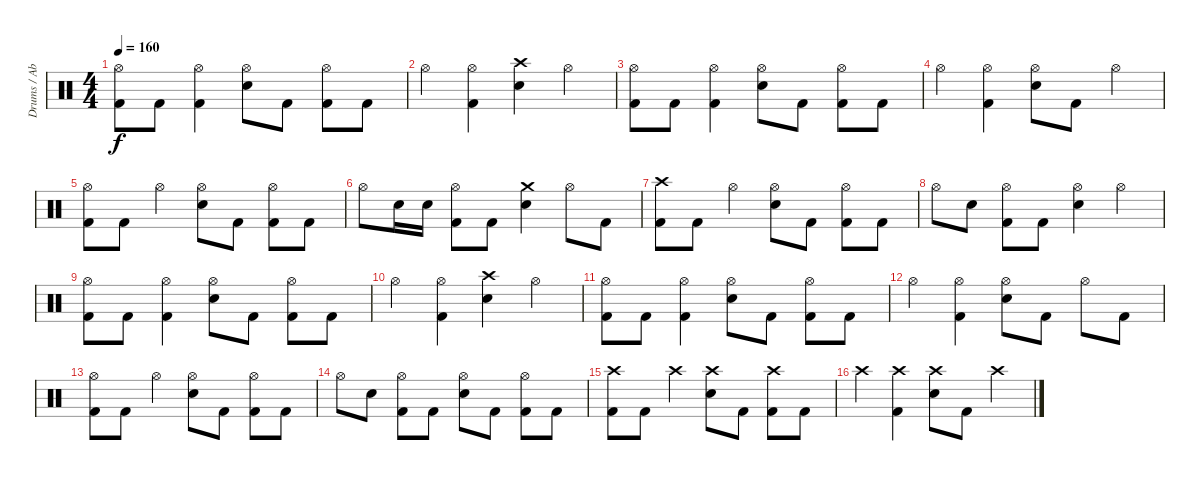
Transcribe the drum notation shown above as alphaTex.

\track ("Drums / Abe Cunningham" "Drums / Ab") {instrument percussion}
\staff {score}
\articulation defaults
\ts (4 4)
\tempo 160
\clef neutral
\ks c
("Hi-Hat (open)" "Kick (hit) 2").8{dy f} "Kick (hit) 2".8 ("Hi-Hat (open)" "Kick (hit) 2").4 ("Hi-Hat (open)" "Electric Snare (hit)").8 "Kick (hit) 2".8 ("Hi-Hat (open)" "Kick (hit) 2").8 "Kick (hit) 2".8 |
"Hi-Hat (open)".4 ("Hi-Hat (open)" "Kick (hit) 2").4 ("Crash high (hit)" "Electric Snare (hit)").4 "Hi-Hat (open)".4 |
("Hi-Hat (open)" "Kick (hit) 2").8 "Kick (hit) 2".8 ("Hi-Hat (open)" "Kick (hit) 2").4 ("Hi-Hat (open)" "Electric Snare (hit)").8 "Kick (hit) 2".8 ("Hi-Hat (open)" "Kick (hit) 2").8 "Kick (hit) 2".8 |
"Hi-Hat (open)".4 ("Hi-Hat (open)" "Kick (hit) 2").4 ("Hi-Hat (open)" "Electric Snare (hit)").8 "Kick (hit) 2".8 "Hi-Hat (open)".4 |
("Hi-Hat (open)" "Kick (hit) 2").8 "Kick (hit) 2".8 "Hi-Hat (open)".4 ("Hi-Hat (open)" "Electric Snare (hit)").8 "Kick (hit) 2".8 ("Hi-Hat (open)" "Kick (hit) 2").8 "Kick (hit) 2".8 |
"Hi-Hat (open)".8 "Electric Snare (hit)".16 "Electric Snare (hit)".16 ("Hi-Hat (open)" "Kick (hit) 2").8 "Kick (hit) 2".8 ("Crash medium (hit)" "Electric Snare (hit)").4 "Hi-Hat (open)".8 "Kick (hit) 2".8 |
("Crash high (hit)" "Kick (hit) 2").8 "Kick (hit) 2".8 "Hi-Hat (open)".4 ("Hi-Hat (open)" "Electric Snare (hit)").8 "Kick (hit) 2".8 ("Hi-Hat (open)" "Kick (hit) 2").8 "Kick (hit) 2".8 |
"Hi-Hat (open)".8 "Electric Snare (hit)".8 ("Hi-Hat (open)" "Kick (hit) 2").8 "Kick (hit) 2".8 ("Hi-Hat (open)" "Electric Snare (hit)").4 "Hi-Hat (open)".4 |
("Hi-Hat (open)" "Kick (hit) 2").8 "Kick (hit) 2".8 ("Hi-Hat (open)" "Kick (hit) 2").4 ("Hi-Hat (open)" "Electric Snare (hit)").8 "Kick (hit) 2".8 ("Hi-Hat (open)" "Kick (hit) 2").8 "Kick (hit) 2".8 |
"Hi-Hat (open)".4 ("Hi-Hat (open)" "Kick (hit) 2").4 ("Crash high (hit)" "Electric Snare (hit)").4 "Hi-Hat (open)".4 |
("Hi-Hat (open)" "Kick (hit) 2").8 "Kick (hit) 2".8 ("Hi-Hat (open)" "Kick (hit) 2").4 ("Hi-Hat (open)" "Electric Snare (hit)").8 "Kick (hit) 2".8 ("Hi-Hat (open)" "Kick (hit) 2").8 "Kick (hit) 2".8 |
"Hi-Hat (open)".4 ("Hi-Hat (open)" "Kick (hit) 2").4 ("Hi-Hat (open)" "Electric Snare (hit)").8 "Kick (hit) 2".8 "Hi-Hat (open)".8 "Kick (hit) 2".8 |
("Hi-Hat (open)" "Kick (hit) 2").8 "Kick (hit) 2".8 "Hi-Hat (open)".4 ("Hi-Hat (open)" "Electric Snare (hit)").8 "Kick (hit) 2".8 ("Hi-Hat (open)" "Kick (hit) 2").8 "Kick (hit) 2".8 |
"Hi-Hat (open)".8 "Electric Snare (hit)".8 ("Hi-Hat (open)" "Kick (hit) 2").8 "Kick (hit) 2".8 ("Hi-Hat (open)" "Electric Snare (hit)").8 "Kick (hit) 2".8 ("Hi-Hat (open)" "Kick (hit) 2").8 "Kick (hit) 2".8 |
("Crash high (hit)" "Kick (hit) 2").8 "Kick (hit) 2".8 "Crash high (hit)".4 ("Crash high (hit)" "Electric Snare (hit)").8 "Kick (hit) 2".8 ("Crash high (hit)" "Kick (hit) 2").8 "Kick (hit) 2".8 |
"Crash high (hit)".4 ("Crash high (hit)" "Kick (hit) 2").4 ("Crash high (hit)" "Electric Snare (hit)").8 "Kick (hit) 2".8 "Crash high (hit)".4
